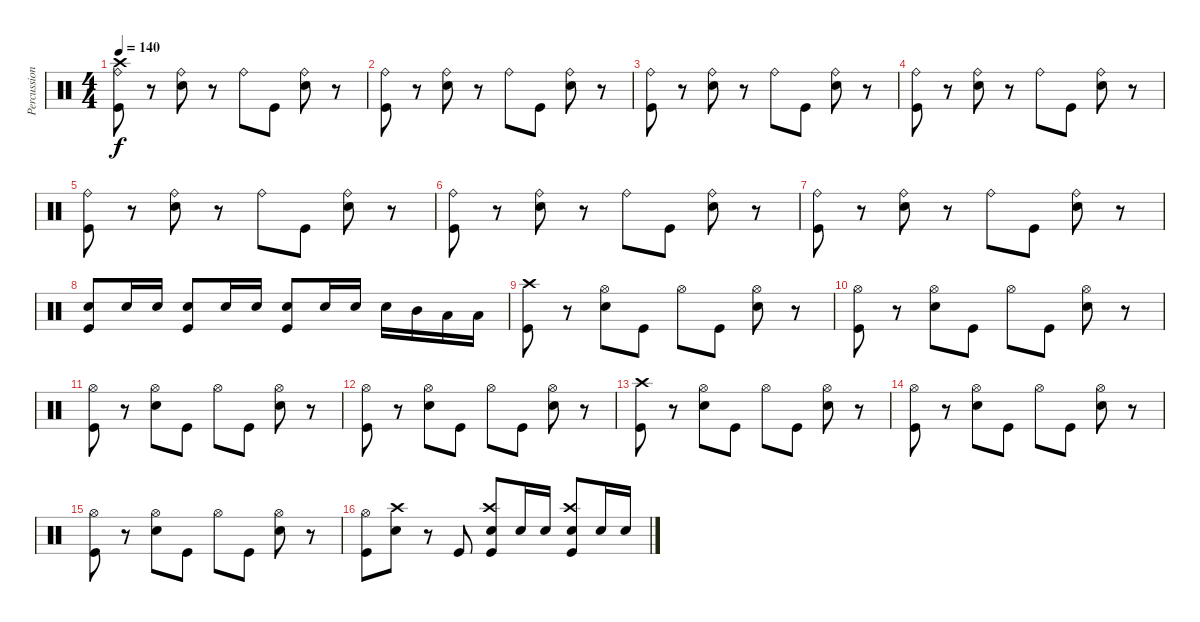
\track ("Percussion" "Percussion") {instrument percussion}
\staff {score}
\articulation defaults
\ts (4 4)
\tempo 140
\clef neutral
\ks c
("Kick (hit)" "Ride (bell)" "Crash high (hit)").8{dy f} r.8 ("Snare (hit) 2" "Ride (bell)").8 r.8 "Ride (bell)".8 "Kick (hit)".8 ("Snare (hit) 2" "Ride (bell)").8 r.8 |
("Kick (hit)" "Ride (bell)").8 r.8 ("Snare (hit) 2" "Ride (bell)").8 r.8 "Ride (bell)".8 "Kick (hit)".8 ("Snare (hit) 2" "Ride (bell)").8 r.8 |
("Kick (hit)" "Ride (bell)").8 r.8 ("Snare (hit) 2" "Ride (bell)").8 r.8 "Ride (bell)".8 "Kick (hit)".8 ("Snare (hit) 2" "Ride (bell)").8 r.8 |
("Kick (hit)" "Ride (bell)").8 r.8 ("Snare (hit) 2" "Ride (bell)").8 r.8 "Ride (bell)".8 "Kick (hit)".8 ("Snare (hit) 2" "Ride (bell)").8 r.8 |
("Kick (hit)" "Ride (bell)").8 r.8 ("Snare (hit) 2" "Ride (bell)").8 r.8 "Ride (bell)".8 "Kick (hit)".8 ("Snare (hit) 2" "Ride (bell)").8 r.8 |
("Kick (hit)" "Ride (bell)").8 r.8 ("Snare (hit) 2" "Ride (bell)").8 r.8 "Ride (bell)".8 "Kick (hit)".8 ("Snare (hit) 2" "Ride (bell)").8 r.8 |
("Kick (hit)" "Ride (bell)").8 r.8 ("Snare (hit) 2" "Ride (bell)").8 r.8 "Ride (bell)".8 "Kick (hit)".8 ("Snare (hit) 2" "Ride (bell)").8 r.8 |
("Snare (hit) 2" "Kick (hit)").8 "Snare (hit) 2".16 "Snare (hit) 2".16 ("Snare (hit) 2" "Kick (hit)").8 "Snare (hit) 2".16 "Snare (hit) 2".16 ("Snare (hit) 2" "Kick (hit)").8 "Snare (hit) 2".16 "Snare (hit) 2".16 "Snare (hit) 2".16 "Mid Tom (hit)".16 "Low Tom (hit)".16 "Low Floor Tom (hit)".16 |
("Kick (hit)" "Crash high (hit)").8 r.8 ("Snare (hit) 2" "Hi-Hat (open)").8 "Kick (hit)".8 "Hi-Hat (open)".8 "Kick (hit)".8 ("Snare (hit) 2" "Hi-Hat (open)").8 r.8 |
("Kick (hit)" "Hi-Hat (open)").8 r.8 ("Snare (hit) 2" "Hi-Hat (open)").8 "Kick (hit)".8 "Hi-Hat (open)".8 "Kick (hit)".8 ("Snare (hit) 2" "Hi-Hat (open)").8 r.8 |
("Kick (hit)" "Hi-Hat (open)").8 r.8 ("Snare (hit) 2" "Hi-Hat (open)").8 "Kick (hit)".8 "Hi-Hat (open)".8 "Kick (hit)".8 ("Snare (hit) 2" "Hi-Hat (open)").8 r.8 |
("Kick (hit)" "Hi-Hat (open)").8 r.8 ("Snare (hit) 2" "Hi-Hat (open)").8 "Kick (hit)".8 "Hi-Hat (open)".8 "Kick (hit)".8 ("Snare (hit) 2" "Hi-Hat (open)").8 r.8 |
("Kick (hit)" "Crash high (hit)").8 r.8 ("Snare (hit) 2" "Hi-Hat (open)").8 "Kick (hit)".8 "Hi-Hat (open)".8 "Kick (hit)".8 ("Snare (hit) 2" "Hi-Hat (open)").8 r.8 |
("Kick (hit)" "Hi-Hat (open)").8 r.8 ("Snare (hit) 2" "Hi-Hat (open)").8 "Kick (hit)".8 "Hi-Hat (open)".8 "Kick (hit)".8 ("Snare (hit) 2" "Hi-Hat (open)").8 r.8 |
("Kick (hit)" "Hi-Hat (open)").8 r.8 ("Snare (hit) 2" "Hi-Hat (open)").8 "Kick (hit)".8 "Hi-Hat (open)".8 "Kick (hit)".8 ("Snare (hit) 2" "Hi-Hat (open)").8 r.8 |
("Kick (hit)" "Hi-Hat (open)").8 ("Snare (hit) 2" "Crash high (hit)").8 r.8 "Kick (hit)".8 ("Snare (hit) 2" "Kick (hit)" "Crash high (hit)").8 "Snare (hit) 2".16 "Snare (hit) 2".16 ("Snare (hit) 2" "Kick (hit)" "Crash high (hit)").8 "Snare (hit) 2".16 "Snare (hit) 2".16
